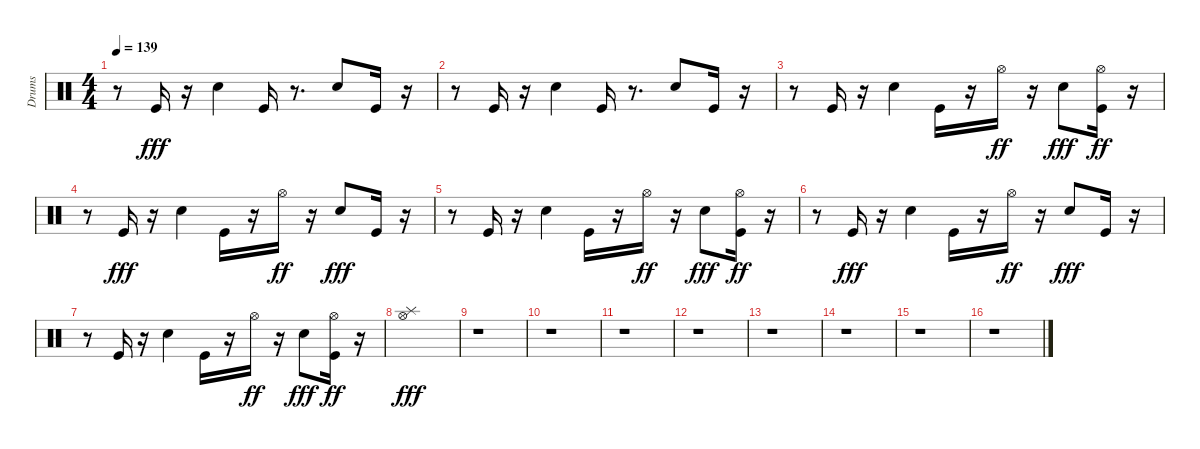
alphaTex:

\track ("Drums" "Drums") {instrument percussion}
\staff {score}
\articulation defaults
\ts (4 4)
\tempo 139
\clef neutral
\ks c
r.8{dy fff} "Kick (hit)".16 r.16 "Snare (hit) 2".4 "Kick (hit)".16 r.8{d} "Snare (hit) 2".8 "Kick (hit)".16 r.16 |
r.8 "Kick (hit)".16 r.16 "Snare (hit) 2".4 "Kick (hit)".16 r.8{d} "Snare (hit) 2".8 "Kick (hit)".16 r.16 |
r.8 "Kick (hit)".16 r.16 "Snare (hit) 2".4 "Kick (hit)".16 r.16 "Hi-Hat (open)".16{dy ff} r.16 "Snare (hit) 2".8{dy fff} ("Kick (hit)" "Hi-Hat (open)").16{dy ff} r.16 |
r.8 "Kick (hit)".16{dy fff} r.16 "Snare (hit) 2".4 "Kick (hit)".16 r.16 "Hi-Hat (open)".16{dy ff} r.16 "Snare (hit) 2".8{dy fff} "Kick (hit)".16 r.16 |
r.8 "Kick (hit)".16 r.16 "Snare (hit) 2".4 "Kick (hit)".16 r.16 "Hi-Hat (open)".16{dy ff} r.16 "Snare (hit) 2".8{dy fff} ("Kick (hit)" "Hi-Hat (open)").16{dy ff} r.16 |
r.8 "Kick (hit)".16{dy fff} r.16 "Snare (hit) 2".4 "Kick (hit)".16 r.16 "Hi-Hat (open)".16{dy ff} r.16 "Snare (hit) 2".8{dy fff} "Kick (hit)".16 r.16 |
r.8 "Kick (hit)".16 r.16 "Snare (hit) 2".4 "Kick (hit)".16 r.16 "Hi-Hat (open)".16{dy ff} r.16 "Snare (hit) 2".8{dy fff} ("Kick (hit)" "Hi-Hat (open)").16{dy ff} r.16 |
("Splash (hit)" "Hi-Hat (open)").1{dy fff} |
r.1 |
r.1 |
r.1 |
r.1 |
r.1 |
r.1 |
r.1 |
r.1
